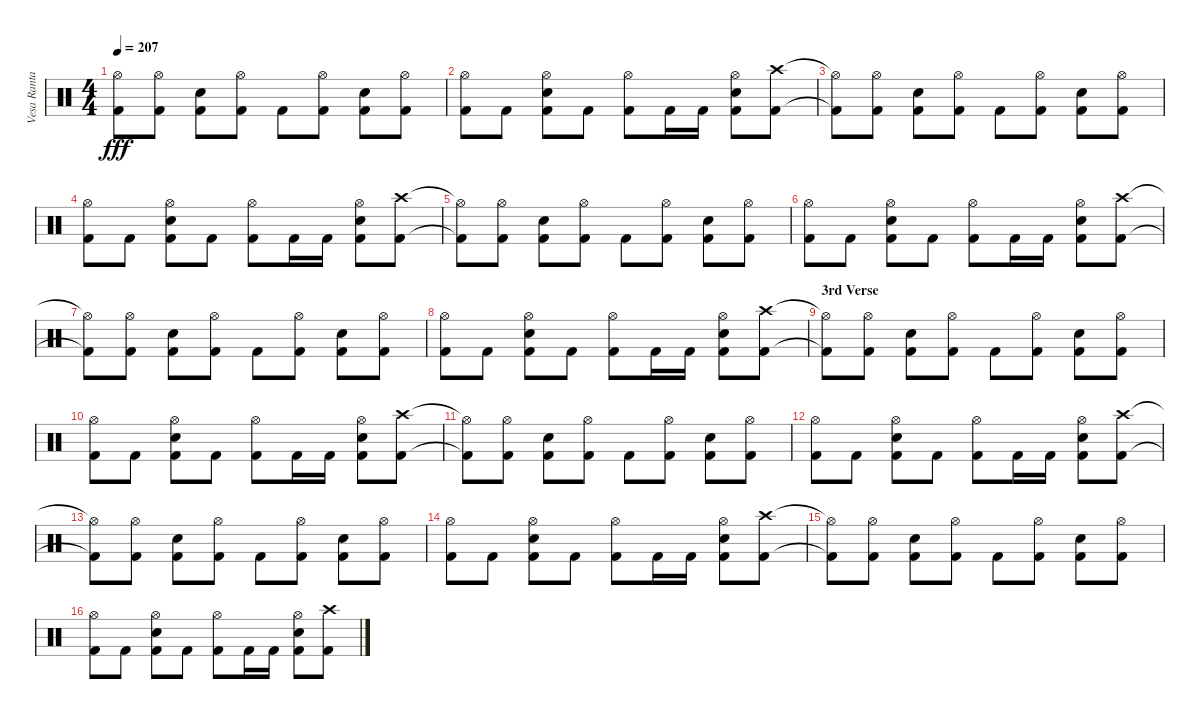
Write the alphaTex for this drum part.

\track ("Vesa Ranta" "Vesa Ranta") {instrument percussion}
\staff {score}
\articulation defaults
\ts (4 4)
\tempo 207
\clef neutral
\ks c
("Hi-Hat (open)"{t} "Kick (hit) 2"{t}).8{dy fff} ("Hi-Hat (open)" "Kick (hit) 2").8 ("Snare (hit) 2" "Kick (hit) 2").8 ("Hi-Hat (open)" "Kick (hit) 2").8 "Kick (hit) 2".8 ("Hi-Hat (open)" "Kick (hit) 2").8 ("Snare (hit) 2" "Kick (hit) 2").8 ("Hi-Hat (open)" "Kick (hit) 2").8 |
("Hi-Hat (open)" "Kick (hit) 2").8 "Kick (hit) 2".8 ("Hi-Hat (open)" "Snare (hit) 2" "Kick (hit) 2").8 "Kick (hit) 2".8 ("Hi-Hat (open)" "Kick (hit) 2").8 "Kick (hit) 2".16 "Kick (hit) 2".16 ("Hi-Hat (open)" "Snare (hit) 2" "Kick (hit) 2").8 ("Crash high (hit)" "Kick (hit) 2").8 |
("Hi-Hat (open)"{t} "Kick (hit) 2"{t}).8 ("Hi-Hat (open)" "Kick (hit) 2").8 ("Snare (hit) 2" "Kick (hit) 2").8 ("Hi-Hat (open)" "Kick (hit) 2").8 "Kick (hit) 2".8 ("Hi-Hat (open)" "Kick (hit) 2").8 ("Snare (hit) 2" "Kick (hit) 2").8 ("Hi-Hat (open)" "Kick (hit) 2").8 |
("Hi-Hat (open)" "Kick (hit) 2").8 "Kick (hit) 2".8 ("Hi-Hat (open)" "Snare (hit) 2" "Kick (hit) 2").8 "Kick (hit) 2".8 ("Hi-Hat (open)" "Kick (hit) 2").8 "Kick (hit) 2".16 "Kick (hit) 2".16 ("Hi-Hat (open)" "Snare (hit) 2" "Kick (hit) 2").8 ("Crash high (hit)" "Kick (hit) 2").8 |
("Hi-Hat (open)"{t} "Kick (hit) 2"{t}).8 ("Hi-Hat (open)" "Kick (hit) 2").8 ("Snare (hit) 2" "Kick (hit) 2").8 ("Hi-Hat (open)" "Kick (hit) 2").8 "Kick (hit) 2".8 ("Hi-Hat (open)" "Kick (hit) 2").8 ("Snare (hit) 2" "Kick (hit) 2").8 ("Hi-Hat (open)" "Kick (hit) 2").8 |
("Hi-Hat (open)" "Kick (hit) 2").8 "Kick (hit) 2".8 ("Hi-Hat (open)" "Snare (hit) 2" "Kick (hit) 2").8 "Kick (hit) 2".8 ("Hi-Hat (open)" "Kick (hit) 2").8 "Kick (hit) 2".16 "Kick (hit) 2".16 ("Hi-Hat (open)" "Snare (hit) 2" "Kick (hit) 2").8 ("Crash high (hit)" "Kick (hit) 2").8 |
("Hi-Hat (open)"{t} "Kick (hit) 2"{t}).8 ("Hi-Hat (open)" "Kick (hit) 2").8 ("Snare (hit) 2" "Kick (hit) 2").8 ("Hi-Hat (open)" "Kick (hit) 2").8 "Kick (hit) 2".8 ("Hi-Hat (open)" "Kick (hit) 2").8 ("Snare (hit) 2" "Kick (hit) 2").8 ("Hi-Hat (open)" "Kick (hit) 2").8 |
("Hi-Hat (open)" "Kick (hit) 2").8 "Kick (hit) 2".8 ("Hi-Hat (open)" "Snare (hit) 2" "Kick (hit) 2").8 "Kick (hit) 2".8 ("Hi-Hat (open)" "Kick (hit) 2").8 "Kick (hit) 2".16 "Kick (hit) 2".16 ("Hi-Hat (open)" "Snare (hit) 2" "Kick (hit) 2").8 ("Crash high (hit)" "Kick (hit) 2").8 |
\section ("" "3rd Verse")
("Hi-Hat (open)"{t} "Kick (hit) 2"{t}).8 ("Hi-Hat (open)" "Kick (hit) 2").8 ("Snare (hit) 2" "Kick (hit) 2").8 ("Hi-Hat (open)" "Kick (hit) 2").8 "Kick (hit) 2".8 ("Hi-Hat (open)" "Kick (hit) 2").8 ("Snare (hit) 2" "Kick (hit) 2").8 ("Hi-Hat (open)" "Kick (hit) 2").8 |
("Hi-Hat (open)" "Kick (hit) 2").8 "Kick (hit) 2".8 ("Hi-Hat (open)" "Snare (hit) 2" "Kick (hit) 2").8 "Kick (hit) 2".8 ("Hi-Hat (open)" "Kick (hit) 2").8 "Kick (hit) 2".16 "Kick (hit) 2".16 ("Hi-Hat (open)" "Snare (hit) 2" "Kick (hit) 2").8 ("Crash high (hit)" "Kick (hit) 2").8 |
("Hi-Hat (open)"{t} "Kick (hit) 2"{t}).8 ("Hi-Hat (open)" "Kick (hit) 2").8 ("Snare (hit) 2" "Kick (hit) 2").8 ("Hi-Hat (open)" "Kick (hit) 2").8 "Kick (hit) 2".8 ("Hi-Hat (open)" "Kick (hit) 2").8 ("Snare (hit) 2" "Kick (hit) 2").8 ("Hi-Hat (open)" "Kick (hit) 2").8 |
("Hi-Hat (open)" "Kick (hit) 2").8 "Kick (hit) 2".8 ("Hi-Hat (open)" "Snare (hit) 2" "Kick (hit) 2").8 "Kick (hit) 2".8 ("Hi-Hat (open)" "Kick (hit) 2").8 "Kick (hit) 2".16 "Kick (hit) 2".16 ("Hi-Hat (open)" "Snare (hit) 2" "Kick (hit) 2").8 ("Crash high (hit)" "Kick (hit) 2").8 |
("Hi-Hat (open)"{t} "Kick (hit) 2"{t}).8 ("Hi-Hat (open)" "Kick (hit) 2").8 ("Snare (hit) 2" "Kick (hit) 2").8 ("Hi-Hat (open)" "Kick (hit) 2").8 "Kick (hit) 2".8 ("Hi-Hat (open)" "Kick (hit) 2").8 ("Snare (hit) 2" "Kick (hit) 2").8 ("Hi-Hat (open)" "Kick (hit) 2").8 |
("Hi-Hat (open)" "Kick (hit) 2").8 "Kick (hit) 2".8 ("Hi-Hat (open)" "Snare (hit) 2" "Kick (hit) 2").8 "Kick (hit) 2".8 ("Hi-Hat (open)" "Kick (hit) 2").8 "Kick (hit) 2".16 "Kick (hit) 2".16 ("Hi-Hat (open)" "Snare (hit) 2" "Kick (hit) 2").8 ("Crash high (hit)" "Kick (hit) 2").8 |
("Hi-Hat (open)"{t} "Kick (hit) 2"{t}).8 ("Hi-Hat (open)" "Kick (hit) 2").8 ("Snare (hit) 2" "Kick (hit) 2").8 ("Hi-Hat (open)" "Kick (hit) 2").8 "Kick (hit) 2".8 ("Hi-Hat (open)" "Kick (hit) 2").8 ("Snare (hit) 2" "Kick (hit) 2").8 ("Hi-Hat (open)" "Kick (hit) 2").8 |
("Hi-Hat (open)" "Kick (hit) 2").8 "Kick (hit) 2".8 ("Hi-Hat (open)" "Snare (hit) 2" "Kick (hit) 2").8 "Kick (hit) 2".8 ("Hi-Hat (open)" "Kick (hit) 2").8 "Kick (hit) 2".16 "Kick (hit) 2".16 ("Hi-Hat (open)" "Snare (hit) 2" "Kick (hit) 2").8 ("Crash high (hit)" "Kick (hit) 2").8
